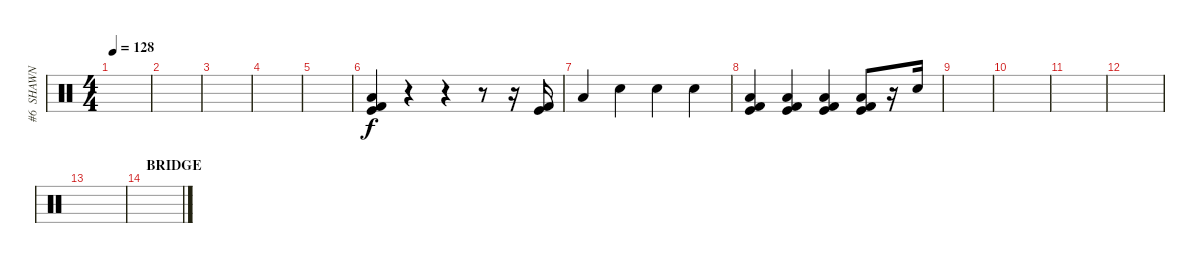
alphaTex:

\track ("#6  SHAWN \"CLOWN\" CRAHAN" "#6  SHAWN ") {instrument percussion}
\staff {score}
\articulation defaults
\ts (4 4)
\tempo 128
\clef neutral
\ks c
|
|
|
|
|
\section ("" "")
("Kick (hit) 2" "Low Floor Tom (hit)" "Kick (hit)").4 r.4 r.4 r.8 r.16 ("Kick (hit) 2" "Kick (hit)").16 |
"Low Floor Tom (hit)".4 "Snare (hit)"{x}.4 "Snare (hit)"{x}.4 "Snare (hit)"{x}.4 |
("Kick (hit) 2" "Kick (hit)" "Low Floor Tom (hit)").4 ("Kick (hit) 2" "Kick (hit)" "Low Floor Tom (hit)").4 ("Kick (hit) 2" "Kick (hit)" "Low Floor Tom (hit)").4 ("Kick (hit) 2" "Kick (hit)" "Low Floor Tom (hit)").8 r.16 "Snare (hit)"{x}.16 |
|
|
|
|
|
\section ("" "BRIDGE")
